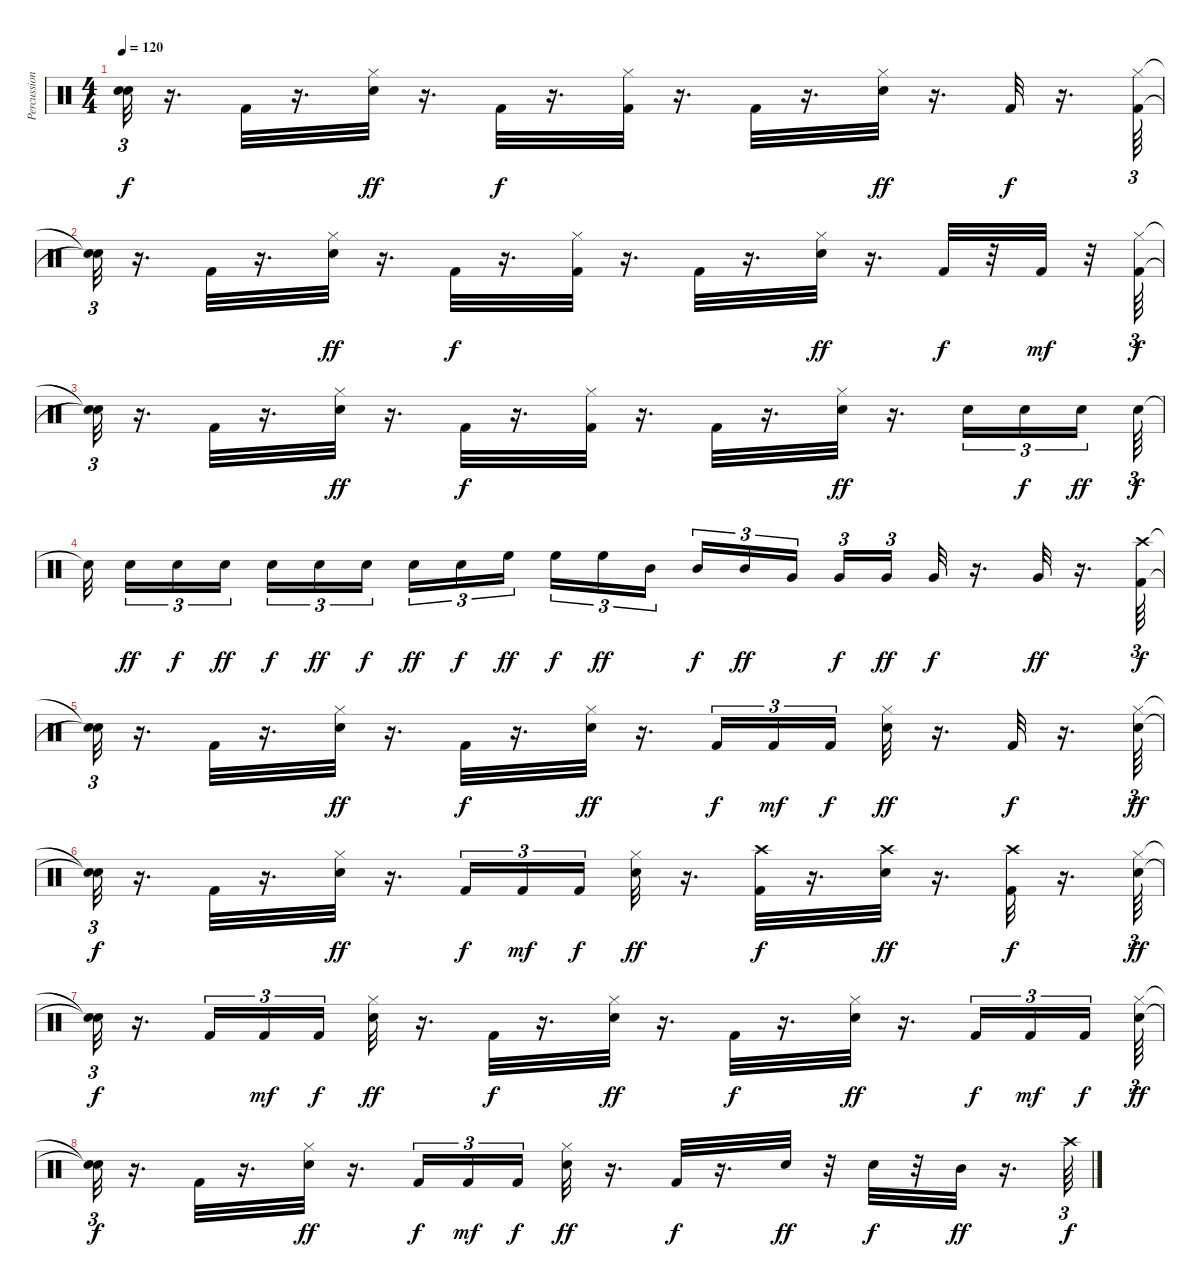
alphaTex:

\track ("Percussion" "Percussion") {instrument percussion}
\staff {score}
\articulation defaults
\ts (4 4)
\tempo 120
\clef neutral
\ks c
("Snare (hit)"{t} "Snare (hit)"{t}).32{tu (3 2) dy f} r.16{d} "Kick (hit) 2".32 r.16{d} ("Snare (hit) 2" "Hi-Hat (closed)").32{dy ff} r.16{d} "Kick (hit) 2".32{dy f} r.16{d} ("Hi-Hat (closed)" "Kick (hit) 2").32 r.16{d} "Kick (hit) 2".32 r.16{d} ("Snare (hit) 2" "Hi-Hat (closed)").32{dy ff} r.16{d} "Kick (hit) 2".32{dy f} r.16{d} ("Hi-Hat (closed)" "Kick (hit) 2").64{tu (3 2)} |
("Snare (hit)"{t} "Snare (hit)"{t}).32{tu (3 2)} r.16{d} "Kick (hit) 2".32 r.16{d} ("Snare (hit) 2" "Hi-Hat (closed)").32{dy ff} r.16{d} "Kick (hit) 2".32{dy f} r.16{d} ("Hi-Hat (closed)" "Kick (hit) 2").32 r.16{d} "Kick (hit) 2".32 r.16{d} ("Snare (hit) 2" "Hi-Hat (closed)").32{dy ff} r.16{d} "Kick (hit) 2".32{dy f} r.32 "Kick (hit) 2".32{dy mf} r.32 ("Hi-Hat (closed)" "Kick (hit) 2").64{tu (3 2) dy f} |
("Snare (hit)"{t} "Snare (hit)"{t}).32{tu (3 2)} r.16{d} "Kick (hit) 2".32 r.16{d} ("Snare (hit) 2" "Hi-Hat (closed)").32{dy ff} r.16{d} "Kick (hit) 2".32{dy f} r.16{d} ("Hi-Hat (closed)" "Kick (hit) 2").32 r.16{d} "Kick (hit) 2".32 r.16{d} ("Hi-Hat (closed)" "Snare (hit) 2").32{dy ff} r.16{d} "Snare (hit) 2".16{tu (3 2)} "Snare (hit) 2".16{tu (3 2) dy f} "Snare (hit) 2".16{tu (3 2) dy ff beam splitsecondary} "Snare (hit) 2".64{tu (3 2) dy f} |
"Snare (hit)"{t}.32{beam splitsecondary} "Snare (hit) 2".16{tu (3 2) dy ff} "Snare (hit) 2".16{tu (3 2) dy f} "Snare (hit)".16{tu (3 2) dy ff beam splitsecondary} "Snare (hit)".16{tu (3 2) dy f} "Snare (hit)".16{tu (3 2) dy ff} "Snare (hit)".16{tu (3 2) dy f} "Snare (hit)".16{tu (3 2) dy ff} "Snare (hit)".16{tu (3 2) dy f} "High Floor Tom (hit)".16{tu (3 2) dy ff beam splitsecondary} "High Floor Tom (hit)".16{tu (3 2) dy f} "High Floor Tom (hit)".16{tu (3 2) dy ff} "Mid Tom (hit)".16{tu (3 2)} "Mid Tom (hit)".16{tu (3 2) dy f} "Mid Tom (hit)".16{tu (3 2) dy ff} "Very Low Tom (hit)".16{tu (3 2) beam splitsecondary} "Very Low Tom (hit)".16{tu (3 2) dy f} "Very Low Tom (hit)".16{tu (3 2) dy ff beam splitsecondary} "Very Low Tom (hit)".32{dy f} r.16{d} "Very Low Tom (hit)".32{dy ff} r.16{d} ("Crash high (hit)" "Kick (hit) 2").64{tu (3 2) dy f} |
("Snare (hit)"{t} "Snare (hit)"{t}).32{tu (3 2)} r.16{d} "Kick (hit) 2".32 r.16{d} ("Snare (hit) 2" "Hi-Hat (closed)").32{dy ff} r.16{d} "Kick (hit) 2".32{dy f} r.16{d} ("Snare (hit) 2" "Hi-Hat (closed)").32{dy ff} r.16{d} "Kick (hit) 2".16{tu (3 2) dy f} "Kick (hit) 2".16{tu (3 2) dy mf} "Kick (hit) 2".16{tu (3 2) dy f beam splitsecondary} ("Snare (hit) 2" "Hi-Hat (closed)").32{dy ff} r.16{d} "Kick (hit) 2".32{dy f} r.16{d} ("Snare (hit) 2" "Hi-Hat (closed)").64{tu (3 2) dy ff} |
("Snare (hit)"{t} "Snare (hit)"{t}).32{tu (3 2) dy f} r.16{d} "Kick (hit) 2".32 r.16{d} ("Snare (hit) 2" "Hi-Hat (closed)").32{dy ff} r.16{d} "Kick (hit) 2".16{tu (3 2) dy f} "Kick (hit) 2".16{tu (3 2) dy mf} "Kick (hit) 2".16{tu (3 2) dy f beam splitsecondary} ("Hi-Hat (closed)" "Snare (hit) 2").32{dy ff} r.16{d} ("Crash high (hit)" "Kick (hit) 2").32{dy f} r.16{d} ("Snare (hit) 2" "Crash high (hit)").32{dy ff} r.16{d} ("Crash high (hit)" "Kick (hit) 2").32{dy f} r.16{d} ("Snare (hit) 2" "Hi-Hat (closed)").64{tu (3 2) dy ff} |
("Snare (hit)"{t} "Snare (hit)"{t}).32{tu (3 2) dy f} r.16{d} "Kick (hit) 2".16{tu (3 2)} "Kick (hit) 2".16{tu (3 2) dy mf} "Kick (hit) 2".16{tu (3 2) dy f beam splitsecondary} ("Snare (hit) 2" "Hi-Hat (closed)").32{dy ff} r.16{d} "Kick (hit) 2".32{dy f} r.16{d} ("Snare (hit) 2" "Hi-Hat (closed)").32{dy ff} r.16{d} "Kick (hit) 2".32{dy f} r.16{d} ("Snare (hit) 2" "Hi-Hat (closed)").32{dy ff} r.16{d} "Kick (hit) 2".16{tu (3 2) dy f} "Kick (hit) 2".16{tu (3 2) dy mf} "Kick (hit) 2".16{tu (3 2) dy f beam splitsecondary} ("Snare (hit) 2" "Hi-Hat (closed)").64{tu (3 2) dy ff} |
("Snare (hit)"{t} "Snare (hit)"{t}).32{tu (3 2) dy f} r.16{d} "Kick (hit) 2".32 r.16{d} ("Snare (hit) 2" "Hi-Hat (closed)").32{dy ff} r.16{d} "Kick (hit) 2".16{tu (3 2) dy f} "Kick (hit) 2".16{tu (3 2) dy mf} "Kick (hit) 2".16{tu (3 2) dy f beam splitsecondary} ("Snare (hit) 2" "Hi-Hat (closed)").32{dy ff} r.16{d} "Kick (hit) 2".32{dy f} r.16{d} "Snare (hit) 2".32{dy ff} r.32 "Snare (hit) 2".32{dy f} r.32 "Mid Tom (hit)".32{dy ff} r.16{d} "Crash high (hit)".64{tu (3 2) dy f}
